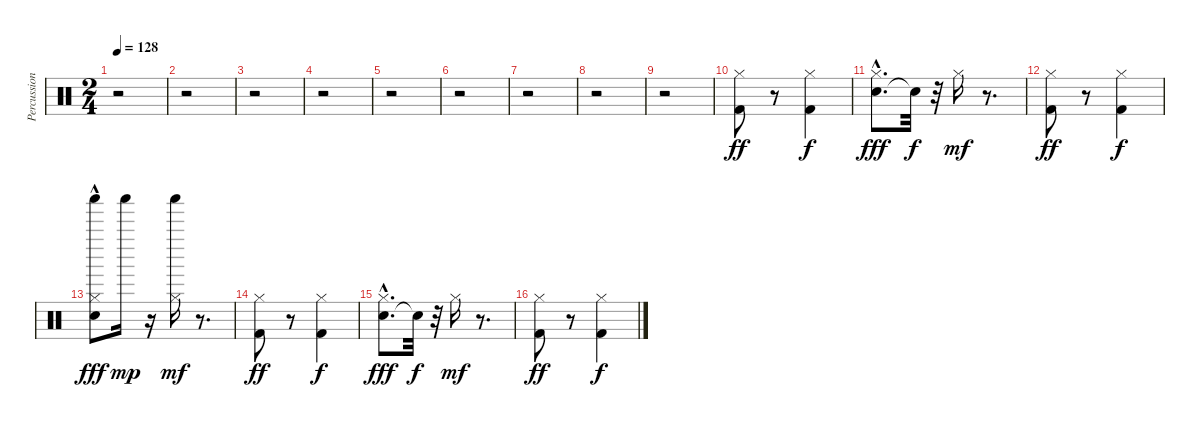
\track ("Percussion" "Percussion") {instrument percussion}
\staff {score}
\articulation defaults
\ts (2 4)
\tempo 128
\clef neutral
\ks c
r.2{dy fff} |
r.2 |
r.2 |
r.2 |
r.2 |
r.2 |
r.2 |
r.2 |
r.2 |
("Hi-Hat (closed)" "Kick (hit) 2").8{dy ff} r.8 ("Kick (hit) 2" "Hi-Hat (closed)").4{dy f} |
("Electric Snare (hit)"{hac} "Hi-Hat (closed)").8{d dy fff} "Snare (hit)"{t}.32{dy f} r.32 "Hi-Hat (closed)".16{dy mf} r.8{d} |
("Hi-Hat (closed)" "Kick (hit) 2").8{dy ff} r.8 ("Kick (hit) 2" "Hi-Hat (closed)").4{dy f} |
("Shaker (hit)" "Electric Snare (hit)"{hac} "Hi-Hat (closed)").8{dy fff} "Shaker (hit)".16{dy mp} r.16 ("Shaker (hit)" "Hi-Hat (closed)").16{dy mf} r.8{d} |
("Hi-Hat (closed)" "Kick (hit) 2").8{dy ff} r.8 ("Kick (hit) 2" "Hi-Hat (closed)").4{dy f} |
("Electric Snare (hit)"{hac} "Hi-Hat (closed)").8{d dy fff} "Snare (hit)"{t}.32{dy f} r.32 "Hi-Hat (closed)".16{dy mf} r.8{d} |
("Hi-Hat (closed)" "Kick (hit) 2").8{dy ff} r.8 ("Kick (hit) 2" "Hi-Hat (closed)").4{dy f}
